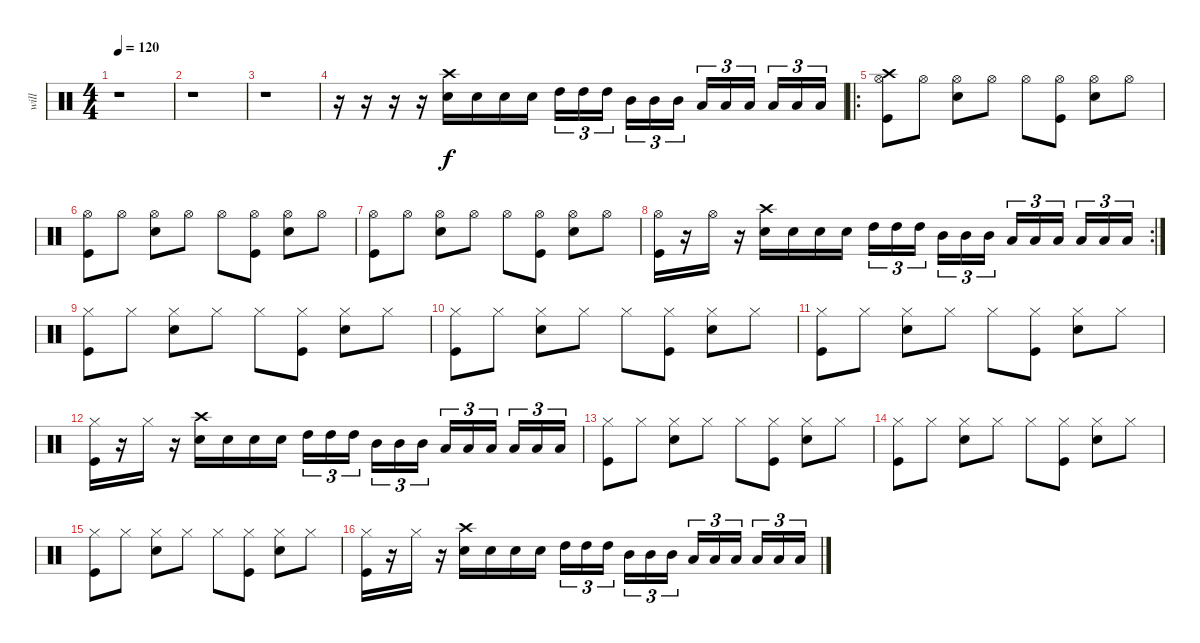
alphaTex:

\track ("will" "will") {instrument percussion}
\staff {score}
\articulation defaults
\ts (4 4)
\tempo 120
\clef neutral
\ks c
r.1{dy f} |
r.1 |
r.1 |
r.16 r.16 r.16 r.16 ("Crash high (hit)" "Electric Snare (hit)").16 "Electric Snare (hit)".16 "Electric Snare (hit)".16 "Electric Snare (hit)".16 "High Tom (hit)".16{tu (3 2)} "High Tom (hit)".16{tu (3 2)} "High Tom (hit)".16{tu (3 2)} "Mid Tom (hit)".16{tu (3 2)} "Mid Tom (hit)".16{tu (3 2)} "Mid Tom (hit)".16{tu (3 2)} "Low Tom (hit)".16{tu (3 2)} "Low Tom (hit)".16{tu (3 2)} "Low Tom (hit)".16{tu (3 2)} "Low Tom (hit)".16{tu (3 2)} "Low Tom (hit)".16{tu (3 2)} "Low Tom (hit)".16{tu (3 2)} |
\ro
("Crash high (hit)" "Hi-Hat (open)" "Kick (hit)").8 "Hi-Hat (open)".8 ("Hi-Hat (open)" "Electric Snare (hit)").8 "Hi-Hat (open)".8 "Hi-Hat (open)".8 ("Hi-Hat (open)" "Kick (hit)").8 ("Hi-Hat (open)" "Electric Snare (hit)").8 "Hi-Hat (open)".8 |
("Hi-Hat (open)" "Kick (hit)").8 "Hi-Hat (open)".8 ("Hi-Hat (open)" "Electric Snare (hit)").8 "Hi-Hat (open)".8 "Hi-Hat (open)".8 ("Hi-Hat (open)" "Kick (hit)").8 ("Hi-Hat (open)" "Electric Snare (hit)").8 "Hi-Hat (open)".8 |
("Hi-Hat (open)" "Kick (hit)").8 "Hi-Hat (open)".8 ("Hi-Hat (open)" "Electric Snare (hit)").8 "Hi-Hat (open)".8 "Hi-Hat (open)".8 ("Hi-Hat (open)" "Kick (hit)").8 ("Hi-Hat (open)" "Electric Snare (hit)").8 "Hi-Hat (open)".8 |
\rc 2
("Hi-Hat (open)" "Kick (hit)").16 r.16 "Hi-Hat (open)".16 r.16 ("Crash high (hit)" "Electric Snare (hit)").16 "Electric Snare (hit)".16 "Electric Snare (hit)".16 "Electric Snare (hit)".16 "High Tom (hit)".16{tu (3 2)} "High Tom (hit)".16{tu (3 2)} "High Tom (hit)".16{tu (3 2)} "Mid Tom (hit)".16{tu (3 2)} "Mid Tom (hit)".16{tu (3 2)} "Mid Tom (hit)".16{tu (3 2)} "Low Tom (hit)".16{tu (3 2)} "Low Tom (hit)".16{tu (3 2)} "Low Tom (hit)".16{tu (3 2)} "Low Tom (hit)".16{tu (3 2)} "Low Tom (hit)".16{tu (3 2)} "Low Tom (hit)".16{tu (3 2)} |
("Hi-Hat (closed)" "Kick (hit)").8 "Hi-Hat (closed)".8 ("Hi-Hat (closed)" "Electric Snare (hit)").8 "Hi-Hat (closed)".8 "Hi-Hat (closed)".8 ("Hi-Hat (closed)" "Kick (hit)").8 ("Hi-Hat (closed)" "Electric Snare (hit)").8 "Hi-Hat (closed)".8 |
("Hi-Hat (closed)" "Kick (hit)").8 "Hi-Hat (closed)".8 ("Hi-Hat (closed)" "Electric Snare (hit)").8 "Hi-Hat (closed)".8 "Hi-Hat (closed)".8 ("Hi-Hat (closed)" "Kick (hit)").8 ("Hi-Hat (closed)" "Electric Snare (hit)").8 "Hi-Hat (closed)".8 |
("Hi-Hat (closed)" "Kick (hit)").8 "Hi-Hat (closed)".8 ("Hi-Hat (closed)" "Electric Snare (hit)").8 "Hi-Hat (closed)".8 "Hi-Hat (closed)".8 ("Hi-Hat (closed)" "Kick (hit)").8 ("Hi-Hat (closed)" "Electric Snare (hit)").8 "Hi-Hat (closed)".8 |
("Hi-Hat (closed)" "Kick (hit)").16 r.16 "Hi-Hat (closed)".16 r.16 ("Crash high (hit)" "Electric Snare (hit)").16 "Electric Snare (hit)".16 "Electric Snare (hit)".16 "Electric Snare (hit)".16 "High Tom (hit)".16{tu (3 2)} "High Tom (hit)".16{tu (3 2)} "High Tom (hit)".16{tu (3 2)} "Mid Tom (hit)".16{tu (3 2)} "Mid Tom (hit)".16{tu (3 2)} "Mid Tom (hit)".16{tu (3 2)} "Low Tom (hit)".16{tu (3 2)} "Low Tom (hit)".16{tu (3 2)} "Low Tom (hit)".16{tu (3 2)} "Low Tom (hit)".16{tu (3 2)} "Low Tom (hit)".16{tu (3 2)} "Low Tom (hit)".16{tu (3 2)} |
("Hi-Hat (closed)" "Kick (hit)").8 "Hi-Hat (closed)".8 ("Hi-Hat (closed)" "Electric Snare (hit)").8 "Hi-Hat (closed)".8 "Hi-Hat (closed)".8 ("Hi-Hat (closed)" "Kick (hit)").8 ("Hi-Hat (closed)" "Electric Snare (hit)").8 "Hi-Hat (closed)".8 |
("Hi-Hat (closed)" "Kick (hit)").8 "Hi-Hat (closed)".8 ("Hi-Hat (closed)" "Electric Snare (hit)").8 "Hi-Hat (closed)".8 "Hi-Hat (closed)".8 ("Hi-Hat (closed)" "Kick (hit)").8 ("Hi-Hat (closed)" "Electric Snare (hit)").8 "Hi-Hat (closed)".8 |
("Hi-Hat (closed)" "Kick (hit)").8 "Hi-Hat (closed)".8 ("Hi-Hat (closed)" "Electric Snare (hit)").8 "Hi-Hat (closed)".8 "Hi-Hat (closed)".8 ("Hi-Hat (closed)" "Kick (hit)").8 ("Hi-Hat (closed)" "Electric Snare (hit)").8 "Hi-Hat (closed)".8 |
("Hi-Hat (closed)" "Kick (hit)").16 r.16 "Hi-Hat (closed)".16 r.16 ("Crash high (hit)" "Electric Snare (hit)").16 "Electric Snare (hit)".16 "Electric Snare (hit)".16 "Electric Snare (hit)".16 "High Tom (hit)".16{tu (3 2)} "High Tom (hit)".16{tu (3 2)} "High Tom (hit)".16{tu (3 2)} "Mid Tom (hit)".16{tu (3 2)} "Mid Tom (hit)".16{tu (3 2)} "Mid Tom (hit)".16{tu (3 2)} "Low Tom (hit)".16{tu (3 2)} "Low Tom (hit)".16{tu (3 2)} "Low Tom (hit)".16{tu (3 2)} "Low Tom (hit)".16{tu (3 2)} "Low Tom (hit)".16{tu (3 2)} "Low Tom (hit)".16{tu (3 2)}
